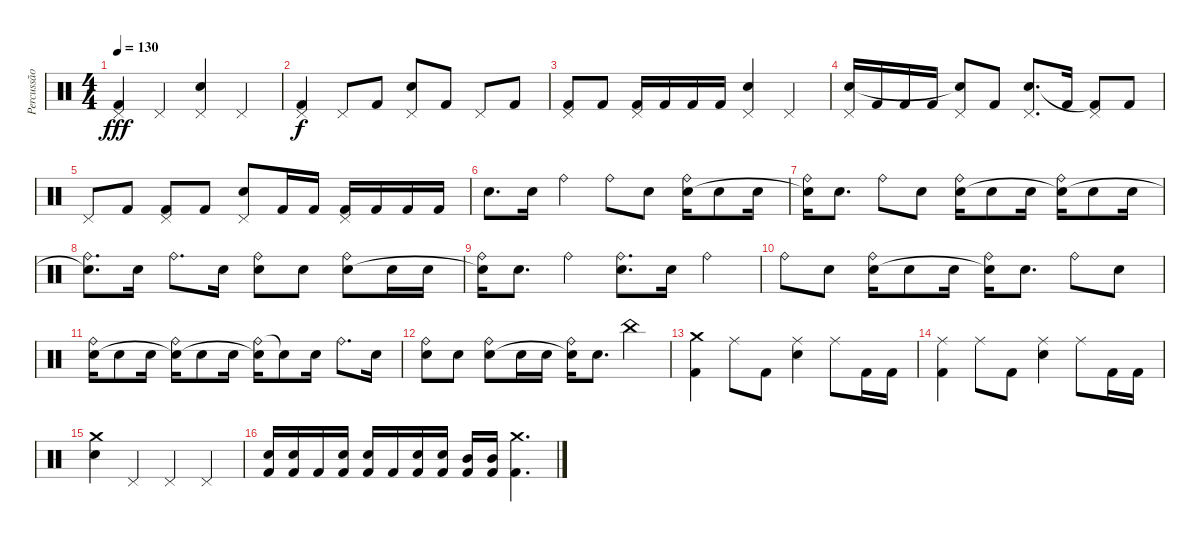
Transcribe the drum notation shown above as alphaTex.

\track ("Percussão" "Percussão") {instrument percussion}
\staff {score}
\articulation defaults
\ts (4 4)
\tempo 130
\clef neutral
\ks c
("Pedal Hi-Hat (hit)" "Kick (hit) 2").4{dy fff} "Pedal Hi-Hat (hit)".4 ("Pedal Hi-Hat (hit)" "Electric Snare (hit)").4 "Pedal Hi-Hat (hit)".4 |
("Pedal Hi-Hat (hit)" "Kick (hit) 2").4{dy f} "Pedal Hi-Hat (hit)".8 "Kick (hit) 2".8 ("Pedal Hi-Hat (hit)" "Electric Snare (hit)").8 "Kick (hit) 2".8 "Pedal Hi-Hat (hit)".8 "Kick (hit) 2".8 |
("Pedal Hi-Hat (hit)" "Kick (hit) 2").8 "Kick (hit) 2".8 ("Pedal Hi-Hat (hit)" "Kick (hit) 2").16 "Kick (hit) 2".16 "Kick (hit) 2".16 "Kick (hit) 2".16 ("Pedal Hi-Hat (hit)" "Electric Snare (hit)").4 "Pedal Hi-Hat (hit)".4 |
("Pedal Hi-Hat (hit)" "Electric Snare (hit)").16 "Kick (hit) 2".16 "Kick (hit) 2".16 "Kick (hit) 2".16 ("Pedal Hi-Hat (hit)" "Snare (hit)"{t}).8 "Kick (hit) 2".8 ("Pedal Hi-Hat (hit)" "Electric Snare (hit)").8{d} "Kick (hit) 2".16 ("Pedal Hi-Hat (hit)" "Kick (hit) 2"{t}).8 "Kick (hit) 2".8 |
"Pedal Hi-Hat (hit)".8 "Kick (hit) 2".8 ("Pedal Hi-Hat (hit)" "Kick (hit) 2").8 "Kick (hit) 2".8 ("Pedal Hi-Hat (hit)" "Electric Snare (hit)").8 "Kick (hit) 2".16 "Kick (hit) 2".16 ("Pedal Hi-Hat (hit)" "Kick (hit) 2").16 "Kick (hit) 2".16 "Kick (hit) 2".16 "Kick (hit) 2".16 |
"Electric Snare (hit)".8{d} "Electric Snare (hit)".16 "Ride (bell)".4 "Ride (bell)".8 "Electric Snare (hit)".8 ("Ride (bell)" "Electric Snare (hit)").16 "Electric Snare (hit)".8 "Electric Snare (hit)".16 |
("Ride (bell)" "Snare (hit)"{t}).16 "Electric Snare (hit)".8{d} "Ride (bell)".8 "Electric Snare (hit)".8 ("Ride (bell)" "Electric Snare (hit)").16 "Electric Snare (hit)".8 "Electric Snare (hit)".16 ("Ride (bell)" "Electric Snare (hit)"{t}).16 "Electric Snare (hit)".8 "Electric Snare (hit)".16 |
("Ride (bell)" "Snare (hit)"{t}).8{d} "Electric Snare (hit)".16 "Ride (bell)".8{d} "Electric Snare (hit)".16 ("Ride (bell)" "Electric Snare (hit)").8 "Electric Snare (hit)".8 ("Ride (bell)" "Electric Snare (hit)").8 "Electric Snare (hit)".16 "Electric Snare (hit)".16 |
("Ride (bell)" "Snare (hit)"{t}).16 "Electric Snare (hit)".8{d} "Ride (bell)".4 ("Ride (bell)" "Electric Snare (hit)").8{d} "Electric Snare (hit)".16 "Ride (bell)".4 |
"Ride (bell)".8 "Electric Snare (hit)".8 ("Ride (bell)" "Electric Snare (hit)").16 "Electric Snare (hit)".8 "Electric Snare (hit)".16 ("Ride (bell)" "Snare (hit)"{t}).16 "Electric Snare (hit)".8{d} "Ride (bell)".8 "Electric Snare (hit)".8 |
("Ride (bell)" "Electric Snare (hit)").16 "Electric Snare (hit)".8 "Electric Snare (hit)".16 ("Ride (bell)" "Electric Snare (hit)"{t}).16 "Electric Snare (hit)".8 "Electric Snare (hit)".16 ("Ride (bell)" "Snare (hit)"{t}).16 "Electric Snare (hit)"{t}.8 "Electric Snare (hit)".16 "Ride (bell)".8{d} "Electric Snare (hit)".16 |
("Ride (bell)" "Electric Snare (hit)").8 "Electric Snare (hit)".8 ("Ride (bell)" "Electric Snare (hit)").8 "Electric Snare (hit)".16 "Electric Snare (hit)".16 ("Ride (bell)" "Snare (hit)"{t}).16 "Electric Snare (hit)".8{d} "China (hit)".4 |
("Crash medium (hit)" "Kick (hit) 2").4 "Ride (middle)".8 "Kick (hit) 2".8 ("Ride (middle)" "Electric Snare (hit)").4 "Ride (middle)".8 "Kick (hit) 2".16 "Kick (hit) 2".16 |
("Ride (middle)" "Kick (hit) 2").4 "Ride (middle)".8 "Kick (hit) 2".8 ("Ride (middle)" "Electric Snare (hit)").4 "Ride (middle)".8 "Kick (hit) 2".16 "Kick (hit) 2".16 |
("Crash medium (hit)" "Electric Snare (hit)").4 "Pedal Hi-Hat (hit)".4 "Pedal Hi-Hat (hit)".4 "Pedal Hi-Hat (hit)".4 |
("Electric Snare (hit)" "Kick (hit) 2").16 ("Electric Snare (hit)" "Kick (hit) 2").16 "Kick (hit) 2".16 ("Electric Snare (hit)" "Kick (hit) 2").16 ("Electric Snare (hit)" "Kick (hit) 2").16 "Kick (hit) 2".16 ("Electric Snare (hit)" "Kick (hit) 2").16 ("Electric Snare (hit)" "Kick (hit) 2").16 ("Mid Tom (hit)" "Kick (hit) 2").16 ("Mid Tom (hit)" "Kick (hit) 2").16 ("Crash medium (hit)" "Kick (hit) 2").4{d}
